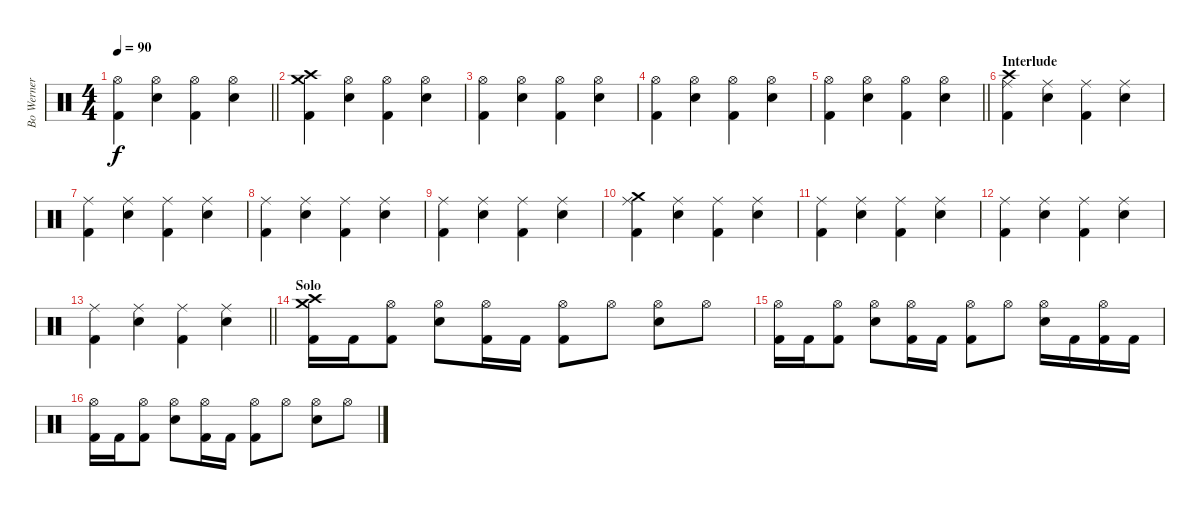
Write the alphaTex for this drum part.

\track ("Bo Werner" "Bo Werner") {instrument percussion}
\staff {score}
\articulation defaults
\ts (4 4)
\tempo 90
\clef neutral
\barLineRight lightlight
\ks c
("Hi-Hat (open)" "Kick (hit) 2").4{dy f} ("Hi-Hat (open)" "Snare (hit) 2").4 ("Hi-Hat (open)" "Kick (hit) 2").4 ("Hi-Hat (open)" "Snare (hit) 2").4 |
("Crash medium (hit)" "Crash high (hit)" "Kick (hit) 2").4 ("Hi-Hat (open)" "Snare (hit) 2").4 ("Hi-Hat (open)" "Kick (hit) 2").4 ("Hi-Hat (open)" "Snare (hit) 2").4 |
("Hi-Hat (open)" "Kick (hit) 2").4 ("Hi-Hat (open)" "Snare (hit) 2").4 ("Hi-Hat (open)" "Kick (hit) 2").4 ("Hi-Hat (open)" "Snare (hit) 2").4 |
("Hi-Hat (open)" "Kick (hit) 2").4 ("Hi-Hat (open)" "Snare (hit) 2").4 ("Hi-Hat (open)" "Kick (hit) 2").4 ("Hi-Hat (open)" "Snare (hit) 2").4 |
\barLineRight lightlight
("Hi-Hat (open)" "Kick (hit) 2").4 ("Hi-Hat (open)" "Snare (hit) 2").4 ("Hi-Hat (open)" "Kick (hit) 2").4 ("Hi-Hat (open)" "Snare (hit) 2").4 |
\section ("" "Interlude")
("Crash high (hit)" "Ride (middle)" "Kick (hit) 2").4 ("Ride (middle)" "Snare (hit) 2").4 ("Ride (middle)" "Kick (hit) 2").4 ("Ride (middle)" "Snare (hit) 2").4 |
("Ride (middle)" "Kick (hit) 2").4 ("Ride (middle)" "Snare (hit) 2").4 ("Ride (middle)" "Kick (hit) 2").4 ("Ride (middle)" "Snare (hit) 2").4 |
("Ride (middle)" "Kick (hit) 2").4 ("Ride (middle)" "Snare (hit) 2").4 ("Ride (middle)" "Kick (hit) 2").4 ("Ride (middle)" "Snare (hit) 2").4 |
("Ride (middle)" "Kick (hit) 2").4 ("Ride (middle)" "Snare (hit) 2").4 ("Ride (middle)" "Kick (hit) 2").4 ("Ride (middle)" "Snare (hit) 2").4 |
("Crash medium (hit)" "Ride (middle)" "Kick (hit) 2").4 ("Ride (middle)" "Snare (hit) 2").4 ("Ride (middle)" "Kick (hit) 2").4 ("Ride (middle)" "Snare (hit) 2").4 |
("Ride (middle)" "Kick (hit) 2").4 ("Ride (middle)" "Snare (hit) 2").4 ("Ride (middle)" "Kick (hit) 2").4 ("Ride (middle)" "Snare (hit) 2").4 |
("Ride (middle)" "Kick (hit) 2").4 ("Ride (middle)" "Snare (hit) 2").4 ("Ride (middle)" "Kick (hit) 2").4 ("Ride (middle)" "Snare (hit) 2").4 |
\barLineRight lightlight
("Ride (middle)" "Kick (hit) 2").4 ("Ride (middle)" "Snare (hit) 2").4 ("Ride (middle)" "Kick (hit) 2").4 ("Ride (middle)" "Snare (hit) 2").4 |
\section ("" "Solo")
("Crash medium (hit)" "Crash high (hit)" "Kick (hit) 2").16 "Kick (hit) 2".16 ("Hi-Hat (open)" "Kick (hit) 2").8 ("Hi-Hat (open)" "Snare (hit) 2").8 ("Hi-Hat (open)" "Kick (hit) 2").16 "Kick (hit) 2".16 ("Hi-Hat (open)" "Kick (hit) 2").8 "Hi-Hat (open)".8 ("Hi-Hat (open)" "Snare (hit) 2").8 "Hi-Hat (open)".8 |
("Hi-Hat (open)" "Kick (hit) 2").16 "Kick (hit) 2".16 ("Hi-Hat (open)" "Kick (hit) 2").8 ("Hi-Hat (open)" "Snare (hit) 2").8 ("Hi-Hat (open)" "Kick (hit) 2").16 "Kick (hit) 2".16 ("Hi-Hat (open)" "Kick (hit) 2").8 "Hi-Hat (open)".8 ("Hi-Hat (open)" "Snare (hit) 2").16 "Kick (hit) 2".16 ("Hi-Hat (open)" "Kick (hit) 2").16 "Kick (hit) 2".16 |
("Hi-Hat (open)" "Kick (hit) 2").16 "Kick (hit) 2".16 ("Hi-Hat (open)" "Kick (hit) 2").8 ("Hi-Hat (open)" "Snare (hit) 2").8 ("Hi-Hat (open)" "Kick (hit) 2").16 "Kick (hit) 2".16 ("Hi-Hat (open)" "Kick (hit) 2").8 "Hi-Hat (open)".8 ("Hi-Hat (open)" "Snare (hit) 2").8 "Hi-Hat (open)".8
